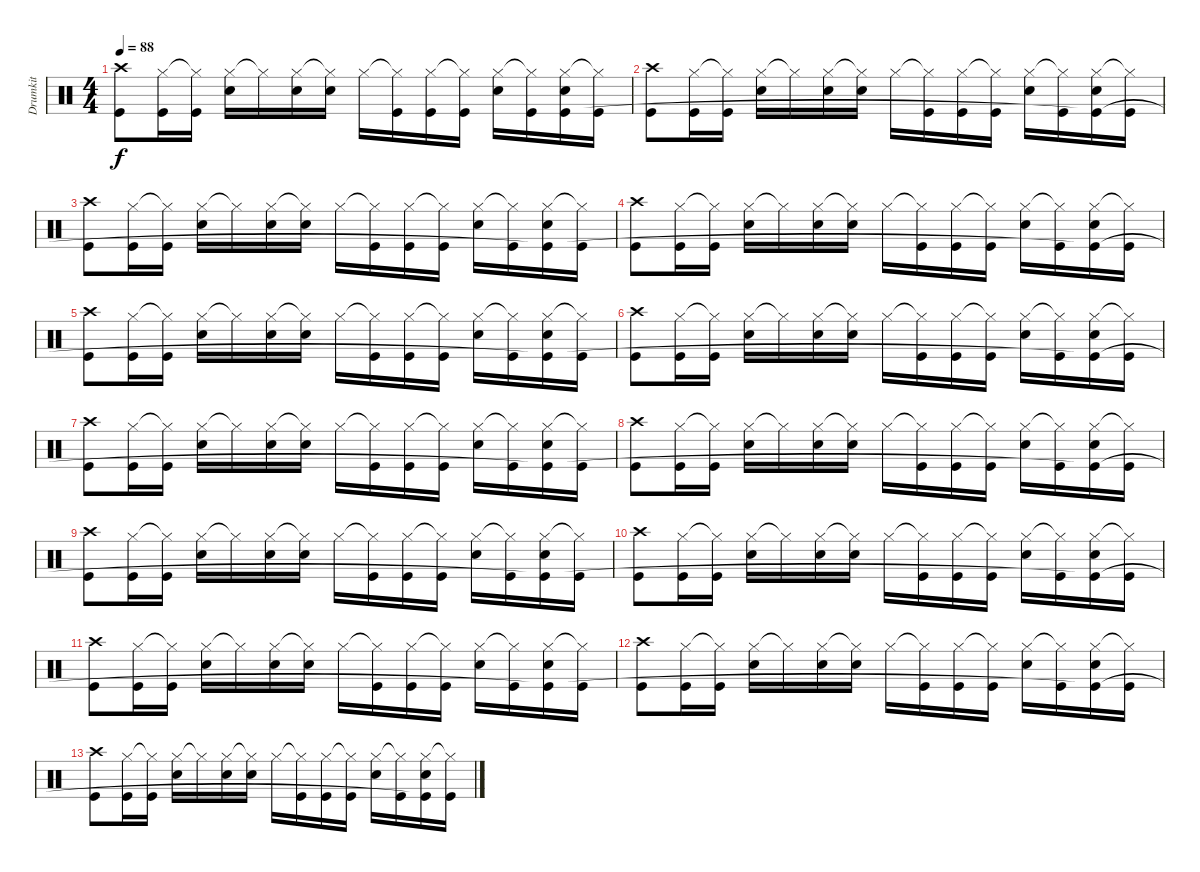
\track ("Drumkit" "Drumkit") {instrument percussion}
\staff {score}
\articulation defaults
\ts (4 4)
\tempo 88
\clef neutral
\ks c
("Crash high (hit)" "Kick (hit)").8{dy f} ("Hi-Hat (closed)" "Kick (hit)").16 ("Hi-Hat (closed)"{t} "Kick (hit)").16 ("Hi-Hat (closed)" "Snare (hit) 2").16 "Hi-Hat (closed)"{t}.16 ("Hi-Hat (closed)" "Snare (hit) 2").16 ("Hi-Hat (closed)"{t} "Snare (hit) 2").16 "Hi-Hat (closed)".16 ("Hi-Hat (closed)"{t} "Kick (hit)").16 ("Hi-Hat (closed)" "Kick (hit)").16 ("Hi-Hat (closed)"{t} "Kick (hit)").16 ("Hi-Hat (closed)" "Snare (hit) 2").16 ("Hi-Hat (closed)"{t} "Kick (hit)").16 ("Hi-Hat (closed)" "Snare (hit) 2" "Kick (hit)"{t}).16 ("Hi-Hat (closed)"{t} "Kick (hit)").16 |
("Crash high (hit)" "Kick (hit)").8 ("Hi-Hat (closed)" "Kick (hit)").16 ("Hi-Hat (closed)"{t} "Kick (hit)").16 ("Hi-Hat (closed)" "Snare (hit) 2").16 "Hi-Hat (closed)"{t}.16 ("Hi-Hat (closed)" "Snare (hit) 2").16 ("Hi-Hat (closed)"{t} "Snare (hit) 2").16 "Hi-Hat (closed)".16 ("Hi-Hat (closed)"{t} "Kick (hit)").16 ("Hi-Hat (closed)" "Kick (hit)").16 ("Hi-Hat (closed)"{t} "Kick (hit)").16 ("Hi-Hat (closed)" "Snare (hit) 2").16 ("Hi-Hat (closed)"{t} "Kick (hit)").16 ("Hi-Hat (closed)" "Snare (hit) 2" "Kick (hit)"{t}).16 ("Hi-Hat (closed)"{t} "Kick (hit)").16 |
("Crash high (hit)" "Kick (hit)").8 ("Hi-Hat (closed)" "Kick (hit)").16 ("Hi-Hat (closed)"{t} "Kick (hit)").16 ("Hi-Hat (closed)" "Snare (hit) 2").16 "Hi-Hat (closed)"{t}.16 ("Hi-Hat (closed)" "Snare (hit) 2").16 ("Hi-Hat (closed)"{t} "Snare (hit) 2").16 "Hi-Hat (closed)".16 ("Hi-Hat (closed)"{t} "Kick (hit)").16 ("Hi-Hat (closed)" "Kick (hit)").16 ("Hi-Hat (closed)"{t} "Kick (hit)").16 ("Hi-Hat (closed)" "Snare (hit) 2").16 ("Hi-Hat (closed)"{t} "Kick (hit)").16 ("Hi-Hat (closed)" "Snare (hit) 2" "Kick (hit)"{t}).16 ("Hi-Hat (closed)"{t} "Kick (hit)").16 |
("Crash high (hit)" "Kick (hit)").8 ("Hi-Hat (closed)" "Kick (hit)").16 ("Hi-Hat (closed)"{t} "Kick (hit)").16 ("Hi-Hat (closed)" "Snare (hit) 2").16 "Hi-Hat (closed)"{t}.16 ("Hi-Hat (closed)" "Snare (hit) 2").16 ("Hi-Hat (closed)"{t} "Snare (hit) 2").16 "Hi-Hat (closed)".16 ("Hi-Hat (closed)"{t} "Kick (hit)").16 ("Hi-Hat (closed)" "Kick (hit)").16 ("Hi-Hat (closed)"{t} "Kick (hit)").16 ("Hi-Hat (closed)" "Snare (hit) 2").16 ("Hi-Hat (closed)"{t} "Kick (hit)").16 ("Hi-Hat (closed)" "Snare (hit) 2" "Kick (hit)"{t}).16 ("Hi-Hat (closed)"{t} "Kick (hit)").16 |
("Crash high (hit)" "Kick (hit)").8 ("Hi-Hat (closed)" "Kick (hit)").16 ("Hi-Hat (closed)"{t} "Kick (hit)").16 ("Hi-Hat (closed)" "Snare (hit) 2").16 "Hi-Hat (closed)"{t}.16 ("Hi-Hat (closed)" "Snare (hit) 2").16 ("Hi-Hat (closed)"{t} "Snare (hit) 2").16 "Hi-Hat (closed)".16 ("Hi-Hat (closed)"{t} "Kick (hit)").16 ("Hi-Hat (closed)" "Kick (hit)").16 ("Hi-Hat (closed)"{t} "Kick (hit)").16 ("Hi-Hat (closed)" "Snare (hit) 2").16 ("Hi-Hat (closed)"{t} "Kick (hit)").16 ("Hi-Hat (closed)" "Snare (hit) 2" "Kick (hit)"{t}).16 ("Hi-Hat (closed)"{t} "Kick (hit)").16 |
("Crash high (hit)" "Kick (hit)").8 ("Hi-Hat (closed)" "Kick (hit)").16 ("Hi-Hat (closed)"{t} "Kick (hit)").16 ("Hi-Hat (closed)" "Snare (hit) 2").16 "Hi-Hat (closed)"{t}.16 ("Hi-Hat (closed)" "Snare (hit) 2").16 ("Hi-Hat (closed)"{t} "Snare (hit) 2").16 "Hi-Hat (closed)".16 ("Hi-Hat (closed)"{t} "Kick (hit)").16 ("Hi-Hat (closed)" "Kick (hit)").16 ("Hi-Hat (closed)"{t} "Kick (hit)").16 ("Hi-Hat (closed)" "Snare (hit) 2").16 ("Hi-Hat (closed)"{t} "Kick (hit)").16 ("Hi-Hat (closed)" "Snare (hit) 2" "Kick (hit)"{t}).16 ("Hi-Hat (closed)"{t} "Kick (hit)").16 |
("Crash high (hit)" "Kick (hit)").8 ("Hi-Hat (closed)" "Kick (hit)").16 ("Hi-Hat (closed)"{t} "Kick (hit)").16 ("Hi-Hat (closed)" "Snare (hit) 2").16 "Hi-Hat (closed)"{t}.16 ("Hi-Hat (closed)" "Snare (hit) 2").16 ("Hi-Hat (closed)"{t} "Snare (hit) 2").16 "Hi-Hat (closed)".16 ("Hi-Hat (closed)"{t} "Kick (hit)").16 ("Hi-Hat (closed)" "Kick (hit)").16 ("Hi-Hat (closed)"{t} "Kick (hit)").16 ("Hi-Hat (closed)" "Snare (hit) 2").16 ("Hi-Hat (closed)"{t} "Kick (hit)").16 ("Hi-Hat (closed)" "Snare (hit) 2" "Kick (hit)"{t}).16 ("Hi-Hat (closed)"{t} "Kick (hit)").16 |
("Crash high (hit)" "Kick (hit)").8 ("Hi-Hat (closed)" "Kick (hit)").16 ("Hi-Hat (closed)"{t} "Kick (hit)").16 ("Hi-Hat (closed)" "Snare (hit) 2").16 "Hi-Hat (closed)"{t}.16 ("Hi-Hat (closed)" "Snare (hit) 2").16 ("Hi-Hat (closed)"{t} "Snare (hit) 2").16 "Hi-Hat (closed)".16 ("Hi-Hat (closed)"{t} "Kick (hit)").16 ("Hi-Hat (closed)" "Kick (hit)").16 ("Hi-Hat (closed)"{t} "Kick (hit)").16 ("Hi-Hat (closed)" "Snare (hit) 2").16 ("Hi-Hat (closed)"{t} "Kick (hit)").16 ("Hi-Hat (closed)" "Snare (hit) 2" "Kick (hit)"{t}).16 ("Hi-Hat (closed)"{t} "Kick (hit)").16 |
("Crash high (hit)" "Kick (hit)").8 ("Hi-Hat (closed)" "Kick (hit)").16 ("Hi-Hat (closed)"{t} "Kick (hit)").16 ("Hi-Hat (closed)" "Snare (hit) 2").16 "Hi-Hat (closed)"{t}.16 ("Hi-Hat (closed)" "Snare (hit) 2").16 ("Hi-Hat (closed)"{t} "Snare (hit) 2").16 "Hi-Hat (closed)".16 ("Hi-Hat (closed)"{t} "Kick (hit)").16 ("Hi-Hat (closed)" "Kick (hit)").16 ("Hi-Hat (closed)"{t} "Kick (hit)").16 ("Hi-Hat (closed)" "Snare (hit) 2").16 ("Hi-Hat (closed)"{t} "Kick (hit)").16 ("Hi-Hat (closed)" "Snare (hit) 2" "Kick (hit)"{t}).16 ("Hi-Hat (closed)"{t} "Kick (hit)").16 |
("Crash high (hit)" "Kick (hit)").8 ("Hi-Hat (closed)" "Kick (hit)").16 ("Hi-Hat (closed)"{t} "Kick (hit)").16 ("Hi-Hat (closed)" "Snare (hit) 2").16 "Hi-Hat (closed)"{t}.16 ("Hi-Hat (closed)" "Snare (hit) 2").16 ("Hi-Hat (closed)"{t} "Snare (hit) 2").16 "Hi-Hat (closed)".16 ("Hi-Hat (closed)"{t} "Kick (hit)").16 ("Hi-Hat (closed)" "Kick (hit)").16 ("Hi-Hat (closed)"{t} "Kick (hit)").16 ("Hi-Hat (closed)" "Snare (hit) 2").16 ("Hi-Hat (closed)"{t} "Kick (hit)").16 ("Hi-Hat (closed)" "Snare (hit) 2" "Kick (hit)"{t}).16 ("Hi-Hat (closed)"{t} "Kick (hit)").16 |
("Crash high (hit)" "Kick (hit)").8 ("Hi-Hat (closed)" "Kick (hit)").16 ("Hi-Hat (closed)"{t} "Kick (hit)").16 ("Hi-Hat (closed)" "Snare (hit) 2").16 "Hi-Hat (closed)"{t}.16 ("Hi-Hat (closed)" "Snare (hit) 2").16 ("Hi-Hat (closed)"{t} "Snare (hit) 2").16 "Hi-Hat (closed)".16 ("Hi-Hat (closed)"{t} "Kick (hit)").16 ("Hi-Hat (closed)" "Kick (hit)").16 ("Hi-Hat (closed)"{t} "Kick (hit)").16 ("Hi-Hat (closed)" "Snare (hit) 2").16 ("Hi-Hat (closed)"{t} "Kick (hit)").16 ("Hi-Hat (closed)" "Snare (hit) 2" "Kick (hit)"{t}).16 ("Hi-Hat (closed)"{t} "Kick (hit)").16 |
("Crash high (hit)" "Kick (hit)").8 ("Hi-Hat (closed)" "Kick (hit)").16 ("Hi-Hat (closed)"{t} "Kick (hit)").16 ("Hi-Hat (closed)" "Snare (hit) 2").16 "Hi-Hat (closed)"{t}.16 ("Hi-Hat (closed)" "Snare (hit) 2").16 ("Hi-Hat (closed)"{t} "Snare (hit) 2").16 "Hi-Hat (closed)".16 ("Hi-Hat (closed)"{t} "Kick (hit)").16 ("Hi-Hat (closed)" "Kick (hit)").16 ("Hi-Hat (closed)"{t} "Kick (hit)").16 ("Hi-Hat (closed)" "Snare (hit) 2").16 ("Hi-Hat (closed)"{t} "Kick (hit)").16 ("Hi-Hat (closed)" "Snare (hit) 2" "Kick (hit)"{t}).16 ("Hi-Hat (closed)"{t} "Kick (hit)").16 |
("Crash high (hit)" "Kick (hit)").8 ("Hi-Hat (closed)" "Kick (hit)").16 ("Hi-Hat (closed)"{t} "Kick (hit)").16 ("Hi-Hat (closed)" "Snare (hit) 2").16 "Hi-Hat (closed)"{t}.16 ("Hi-Hat (closed)" "Snare (hit) 2").16 ("Hi-Hat (closed)"{t} "Snare (hit) 2").16 "Hi-Hat (closed)".16 ("Hi-Hat (closed)"{t} "Kick (hit)").16 ("Hi-Hat (closed)" "Kick (hit)").16 ("Hi-Hat (closed)"{t} "Kick (hit)").16 ("Hi-Hat (closed)" "Snare (hit) 2").16 ("Hi-Hat (closed)"{t} "Kick (hit)").16 ("Hi-Hat (closed)" "Snare (hit) 2" "Kick (hit)"{t}).16 ("Hi-Hat (closed)"{t} "Kick (hit)").16
